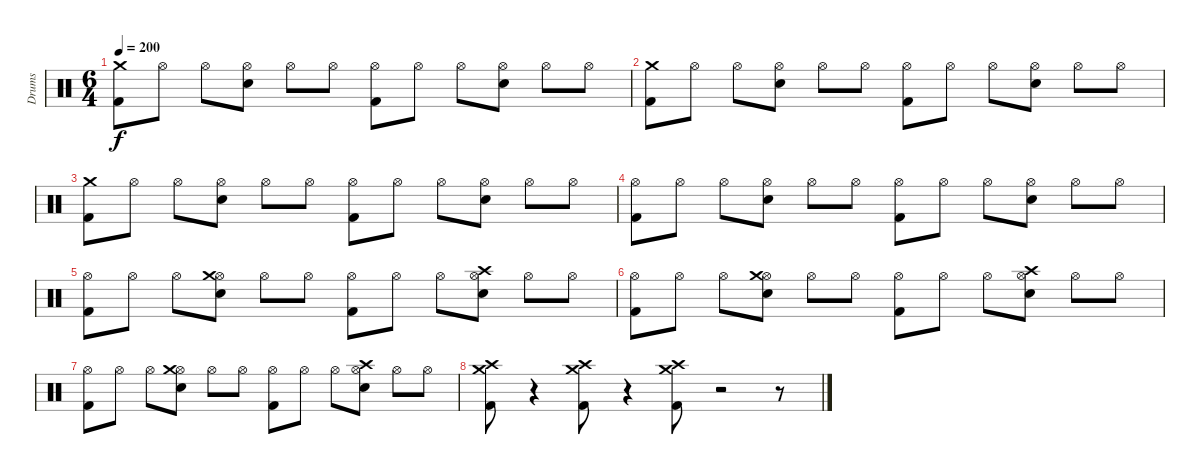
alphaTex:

\track ("Drums" "Drums") {instrument percussion}
\staff {score}
\articulation defaults
\ts (6 4)
\tempo 200
\clef neutral
\ks c
("Kick (hit) 2" "Crash medium (hit)").8{dy f} "Hi-Hat (open)".8 "Hi-Hat (open)".8 ("Electric Snare (hit)" "Hi-Hat (open)").8 "Hi-Hat (open)".8 "Hi-Hat (open)".8 ("Kick (hit) 2" "Hi-Hat (open)").8 "Hi-Hat (open)".8 "Hi-Hat (open)".8 ("Electric Snare (hit)" "Hi-Hat (open)").8 "Hi-Hat (open)".8 "Hi-Hat (open)".8 |
("Kick (hit) 2" "Crash medium (hit)").8 "Hi-Hat (open)".8 "Hi-Hat (open)".8 ("Electric Snare (hit)" "Hi-Hat (open)").8 "Hi-Hat (open)".8 "Hi-Hat (open)".8 ("Kick (hit) 2" "Hi-Hat (open)").8 "Hi-Hat (open)".8 "Hi-Hat (open)".8 ("Electric Snare (hit)" "Hi-Hat (open)").8 "Hi-Hat (open)".8 "Hi-Hat (open)".8 |
("Kick (hit) 2" "Crash medium (hit)").8 "Hi-Hat (open)".8 "Hi-Hat (open)".8 ("Electric Snare (hit)" "Hi-Hat (open)").8 "Hi-Hat (open)".8 "Hi-Hat (open)".8 ("Kick (hit) 2" "Hi-Hat (open)").8 "Hi-Hat (open)".8 "Hi-Hat (open)".8 ("Electric Snare (hit)" "Hi-Hat (open)").8 "Hi-Hat (open)".8 "Hi-Hat (open)".8 |
("Kick (hit) 2" "Hi-Hat (open)").8 "Hi-Hat (open)".8 "Hi-Hat (open)".8 ("Electric Snare (hit)" "Hi-Hat (open)").8 "Hi-Hat (open)".8 "Hi-Hat (open)".8 ("Kick (hit) 2" "Hi-Hat (open)").8 "Hi-Hat (open)".8 "Hi-Hat (open)".8 ("Electric Snare (hit)" "Hi-Hat (open)").8 "Hi-Hat (open)".8 "Hi-Hat (open)".8 |
("Kick (hit) 2" "Hi-Hat (open)").8 "Hi-Hat (open)".8 "Hi-Hat (open)".8 ("Electric Snare (hit)" "Hi-Hat (open)" "Crash medium (hit)").8 "Hi-Hat (open)".8 "Hi-Hat (open)".8 ("Kick (hit) 2" "Hi-Hat (open)").8 "Hi-Hat (open)".8 "Hi-Hat (open)".8 ("Electric Snare (hit)" "Hi-Hat (open)" "Crash high (hit)").8 "Hi-Hat (open)".8 "Hi-Hat (open)".8 |
("Kick (hit) 2" "Hi-Hat (open)").8 "Hi-Hat (open)".8 "Hi-Hat (open)".8 ("Electric Snare (hit)" "Hi-Hat (open)" "Crash medium (hit)").8 "Hi-Hat (open)".8 "Hi-Hat (open)".8 ("Kick (hit) 2" "Hi-Hat (open)").8 "Hi-Hat (open)".8 "Hi-Hat (open)".8 ("Electric Snare (hit)" "Hi-Hat (open)" "Crash high (hit)").8 "Hi-Hat (open)".8 "Hi-Hat (open)".8 |
("Kick (hit) 2" "Hi-Hat (open)").8 "Hi-Hat (open)".8 "Hi-Hat (open)".8 ("Electric Snare (hit)" "Hi-Hat (open)" "Crash medium (hit)").8 "Hi-Hat (open)".8 "Hi-Hat (open)".8 ("Kick (hit) 2" "Hi-Hat (open)").8 "Hi-Hat (open)".8 "Hi-Hat (open)".8 ("Electric Snare (hit)" "Hi-Hat (open)" "Crash high (hit)").8 "Hi-Hat (open)".8 "Hi-Hat (open)".8 |
("Kick (hit) 2" "Crash high (hit)" "Crash medium (hit)").8 r.4 ("Kick (hit) 2" "Crash high (hit)" "Crash medium (hit)").8 r.4 ("Kick (hit) 2" "Crash high (hit)" "Crash medium (hit)").8 r.2 r.8
